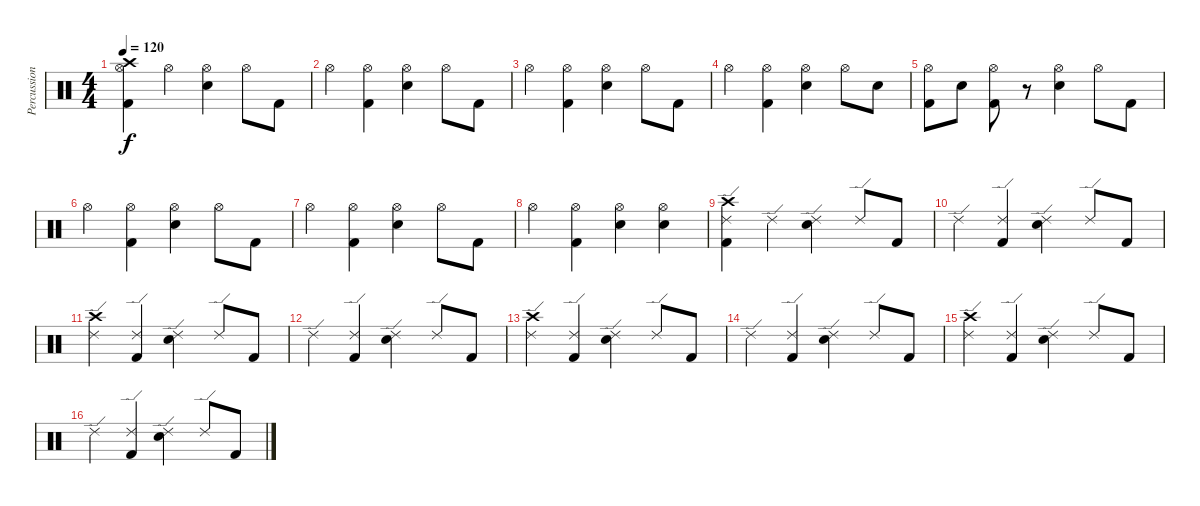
\track ("Percussion" "Percussion") {instrument percussion}
\staff {score}
\articulation defaults
\ts (4 4)
\tempo 120
\clef neutral
\ks c
("Crash high (hit)" "Hi-Hat (open)" "Kick (hit) 2").4{dy f} "Hi-Hat (open)".4 ("Hi-Hat (open)" "Electric Snare (hit)").4 "Hi-Hat (open)".8 "Kick (hit) 2".8 |
"Hi-Hat (open)".4 ("Hi-Hat (open)" "Kick (hit) 2").4 ("Hi-Hat (open)" "Electric Snare (hit)").4 "Hi-Hat (open)".8 "Kick (hit) 2".8 |
"Hi-Hat (open)".4 ("Hi-Hat (open)" "Kick (hit) 2").4 ("Hi-Hat (open)" "Electric Snare (hit)").4 "Hi-Hat (open)".8 "Kick (hit) 2".8 |
"Hi-Hat (open)".4 ("Hi-Hat (open)" "Kick (hit) 2").4 ("Hi-Hat (open)" "Electric Snare (hit)").4 "Hi-Hat (open)".8 "Electric Snare (hit)".8 |
("Hi-Hat (open)" "Kick (hit) 2").8 "Electric Snare (hit)".8 ("Hi-Hat (open)" "Kick (hit) 2").8 r.8 ("Hi-Hat (open)" "Electric Snare (hit)").4 "Hi-Hat (open)".8 "Kick (hit) 2".8 |
"Hi-Hat (open)".4 ("Hi-Hat (open)" "Kick (hit) 2").4 ("Hi-Hat (open)" "Electric Snare (hit)").4 "Hi-Hat (open)".8 "Kick (hit) 2".8 |
"Hi-Hat (open)".4 ("Hi-Hat (open)" "Kick (hit) 2").4 ("Hi-Hat (open)" "Electric Snare (hit)").4 "Hi-Hat (open)".8 "Kick (hit) 2".8 |
"Hi-Hat (open)".4 ("Hi-Hat (open)" "Kick (hit) 2").4 ("Hi-Hat (open)" "Electric Snare (hit)").4 ("Hi-Hat (open)" "Electric Snare (hit)").4 |
("Crash high (hit)" "Ride (edge) 2" "Kick (hit) 2").4 "Ride (edge) 2".4 ("Ride (edge) 2" "Electric Snare (hit)").4 "Ride (edge) 2".8 "Kick (hit) 2".8 |
"Ride (edge) 2".4 ("Ride (edge) 2" "Kick (hit) 2").4 ("Ride (edge) 2" "Electric Snare (hit)").4 "Ride (edge) 2".8 "Kick (hit) 2".8 |
("Crash high (hit)" "Ride (edge) 2").4 ("Ride (edge) 2" "Kick (hit) 2").4 ("Ride (edge) 2" "Electric Snare (hit)").4 "Ride (edge) 2".8 "Kick (hit) 2".8 |
"Ride (edge) 2".4 ("Ride (edge) 2" "Kick (hit) 2").4 ("Ride (edge) 2" "Electric Snare (hit)").4 "Ride (edge) 2".8 "Kick (hit) 2".8 |
("Crash high (hit)" "Ride (edge) 2").4 ("Ride (edge) 2" "Kick (hit) 2").4 ("Ride (edge) 2" "Electric Snare (hit)").4 "Ride (edge) 2".8 "Kick (hit) 2".8 |
"Ride (edge) 2".4 ("Ride (edge) 2" "Kick (hit) 2").4 ("Ride (edge) 2" "Electric Snare (hit)").4 "Ride (edge) 2".8 "Kick (hit) 2".8 |
("Crash high (hit)" "Ride (edge) 2").4 ("Ride (edge) 2" "Kick (hit) 2").4 ("Ride (edge) 2" "Electric Snare (hit)").4 "Ride (edge) 2".8 "Kick (hit) 2".8 |
"Ride (edge) 2".4 ("Ride (edge) 2" "Kick (hit) 2").4 ("Ride (edge) 2" "Electric Snare (hit)").4 "Ride (edge) 2".8 "Kick (hit) 2".8
